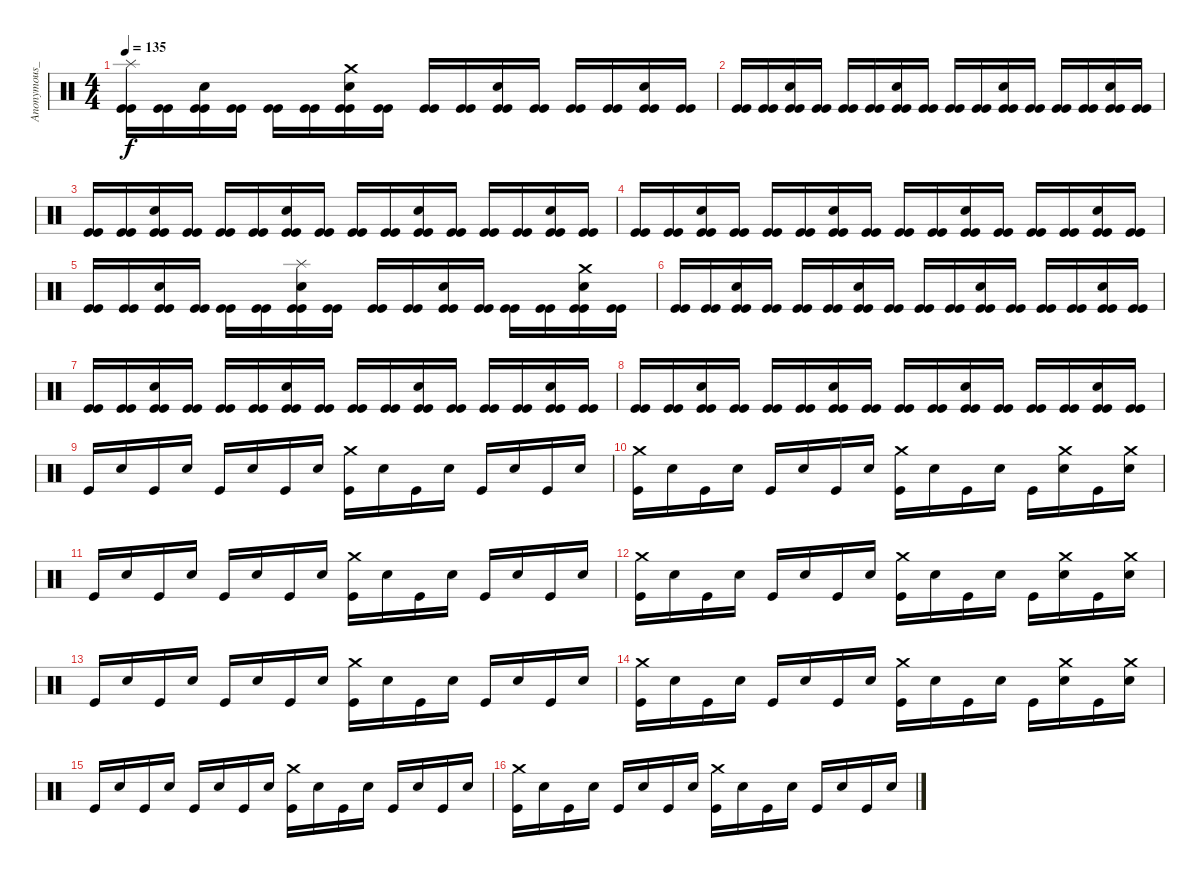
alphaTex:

\track ("Anonymous_Drums" "Anonymous_") {instrument percussion}
\staff {score}
\articulation defaults
\ts (4 4)
\tempo 135
\clef neutral
\ks c
("Splash (hit)" "Kick (hit)" "Kick (hit)").16{dy f} ("Kick (hit)" "Kick (hit)").16 ("Snare (hit) 2" "Kick (hit)" "Kick (hit)").16 ("Kick (hit)" "Kick (hit)").16 ("Kick (hit)" "Kick (hit)").16 ("Kick (hit)" "Kick (hit)").16 ("Crash medium (hit)" "Snare (hit) 2" "Kick (hit)" "Kick (hit)").16 ("Kick (hit)" "Kick (hit)").16 ("Kick (hit)" "Kick (hit)").16 ("Kick (hit)" "Kick (hit)").16 ("Snare (hit) 2" "Kick (hit)" "Kick (hit)").16 ("Kick (hit)" "Kick (hit)").16 ("Kick (hit)" "Kick (hit)").16 ("Kick (hit)" "Kick (hit)").16 ("Snare (hit) 2" "Kick (hit)" "Kick (hit)").16 ("Kick (hit)" "Kick (hit)").16 |
("Kick (hit)" "Kick (hit)").16 ("Kick (hit)" "Kick (hit)").16 ("Snare (hit) 2" "Kick (hit)" "Kick (hit)").16 ("Kick (hit)" "Kick (hit)").16 ("Kick (hit)" "Kick (hit)").16 ("Kick (hit)" "Kick (hit)").16 ("Snare (hit) 2" "Kick (hit)" "Kick (hit)").16 ("Kick (hit)" "Kick (hit)").16 ("Kick (hit)" "Kick (hit)").16 ("Kick (hit)" "Kick (hit)").16 ("Snare (hit) 2" "Kick (hit)" "Kick (hit)").16 ("Kick (hit)" "Kick (hit)").16 ("Kick (hit)" "Kick (hit)").16 ("Kick (hit)" "Kick (hit)").16 ("Snare (hit) 2" "Kick (hit)" "Kick (hit)").16 ("Kick (hit)" "Kick (hit)").16 |
("Kick (hit)" "Kick (hit)").16 ("Kick (hit)" "Kick (hit)").16 ("Snare (hit) 2" "Kick (hit)" "Kick (hit)").16 ("Kick (hit)" "Kick (hit)").16 ("Kick (hit)" "Kick (hit)").16 ("Kick (hit)" "Kick (hit)").16 ("Snare (hit) 2" "Kick (hit)" "Kick (hit)").16 ("Kick (hit)" "Kick (hit)").16 ("Kick (hit)" "Kick (hit)").16 ("Kick (hit)" "Kick (hit)").16 ("Snare (hit) 2" "Kick (hit)" "Kick (hit)").16 ("Kick (hit)" "Kick (hit)").16 ("Kick (hit)" "Kick (hit)").16 ("Kick (hit)" "Kick (hit)").16 ("Snare (hit) 2" "Kick (hit)" "Kick (hit)").16 ("Kick (hit)" "Kick (hit)").16 |
("Kick (hit)" "Kick (hit)").16 ("Kick (hit)" "Kick (hit)").16 ("Snare (hit) 2" "Kick (hit)" "Kick (hit)").16 ("Kick (hit)" "Kick (hit)").16 ("Kick (hit)" "Kick (hit)").16 ("Kick (hit)" "Kick (hit)").16 ("Snare (hit) 2" "Kick (hit)" "Kick (hit)").16 ("Kick (hit)" "Kick (hit)").16 ("Kick (hit)" "Kick (hit)").16 ("Kick (hit)" "Kick (hit)").16 ("Snare (hit) 2" "Kick (hit)" "Kick (hit)").16 ("Kick (hit)" "Kick (hit)").16 ("Kick (hit)" "Kick (hit)").16 ("Kick (hit)" "Kick (hit)").16 ("Snare (hit) 2" "Kick (hit)" "Kick (hit)").16 ("Kick (hit)" "Kick (hit)").16 |
("Kick (hit)" "Kick (hit)").16 ("Kick (hit)" "Kick (hit)").16 ("Snare (hit) 2" "Kick (hit)" "Kick (hit)").16 ("Kick (hit)" "Kick (hit)").16 ("Kick (hit)" "Kick (hit)").16 ("Kick (hit)" "Kick (hit)").16 ("Splash (hit)" "Snare (hit) 2" "Kick (hit)" "Kick (hit)").16 ("Kick (hit)" "Kick (hit)").16 ("Kick (hit)" "Kick (hit)").16 ("Kick (hit)" "Kick (hit)").16 ("Snare (hit) 2" "Kick (hit)" "Kick (hit)").16 ("Kick (hit)" "Kick (hit)").16 ("Kick (hit)" "Kick (hit)").16 ("Kick (hit)" "Kick (hit)").16 ("Crash medium (hit)" "Snare (hit) 2" "Kick (hit)" "Kick (hit)").16 ("Kick (hit)" "Kick (hit)").16 |
("Kick (hit)" "Kick (hit)").16 ("Kick (hit)" "Kick (hit)").16 ("Snare (hit) 2" "Kick (hit)" "Kick (hit)").16 ("Kick (hit)" "Kick (hit)").16 ("Kick (hit)" "Kick (hit)").16 ("Kick (hit)" "Kick (hit)").16 ("Snare (hit) 2" "Kick (hit)" "Kick (hit)").16 ("Kick (hit)" "Kick (hit)").16 ("Kick (hit)" "Kick (hit)").16 ("Kick (hit)" "Kick (hit)").16 ("Snare (hit) 2" "Kick (hit)" "Kick (hit)").16 ("Kick (hit)" "Kick (hit)").16 ("Kick (hit)" "Kick (hit)").16 ("Kick (hit)" "Kick (hit)").16 ("Snare (hit) 2" "Kick (hit)" "Kick (hit)").16 ("Kick (hit)" "Kick (hit)").16 |
("Kick (hit)" "Kick (hit)").16 ("Kick (hit)" "Kick (hit)").16 ("Snare (hit) 2" "Kick (hit)" "Kick (hit)").16 ("Kick (hit)" "Kick (hit)").16 ("Kick (hit)" "Kick (hit)").16 ("Kick (hit)" "Kick (hit)").16 ("Snare (hit) 2" "Kick (hit)" "Kick (hit)").16 ("Kick (hit)" "Kick (hit)").16 ("Kick (hit)" "Kick (hit)").16 ("Kick (hit)" "Kick (hit)").16 ("Snare (hit) 2" "Kick (hit)" "Kick (hit)").16 ("Kick (hit)" "Kick (hit)").16 ("Kick (hit)" "Kick (hit)").16 ("Kick (hit)" "Kick (hit)").16 ("Snare (hit) 2" "Kick (hit)" "Kick (hit)").16 ("Kick (hit)" "Kick (hit)").16 |
("Kick (hit)" "Kick (hit)").16 ("Kick (hit)" "Kick (hit)").16 ("Snare (hit) 2" "Kick (hit)" "Kick (hit)").16 ("Kick (hit)" "Kick (hit)").16 ("Kick (hit)" "Kick (hit)").16 ("Kick (hit)" "Kick (hit)").16 ("Snare (hit) 2" "Kick (hit)" "Kick (hit)").16 ("Kick (hit)" "Kick (hit)").16 ("Kick (hit)" "Kick (hit)").16 ("Kick (hit)" "Kick (hit)").16 ("Snare (hit) 2" "Kick (hit)" "Kick (hit)").16 ("Kick (hit)" "Kick (hit)").16 ("Kick (hit)" "Kick (hit)").16 ("Kick (hit)" "Kick (hit)").16 ("Snare (hit) 2" "Kick (hit)" "Kick (hit)").16 ("Kick (hit)" "Kick (hit)").16 |
"Kick (hit)".16 "Snare (hit) 2".16 "Kick (hit)".16 "Snare (hit) 2".16 "Kick (hit)".16 "Snare (hit) 2".16 "Kick (hit)".16 "Snare (hit) 2".16 ("Crash medium (hit)" "Kick (hit)").16 "Snare (hit) 2".16 "Kick (hit)".16 "Snare (hit) 2".16 "Kick (hit)".16 "Snare (hit) 2".16 "Kick (hit)".16 "Snare (hit) 2".16 |
("Crash medium (hit)" "Kick (hit)").16 "Snare (hit) 2".16 "Kick (hit)".16 "Snare (hit) 2".16 "Kick (hit)".16 "Snare (hit) 2".16 "Kick (hit)".16 "Snare (hit) 2".16 ("Crash medium (hit)" "Kick (hit)").16 "Snare (hit) 2".16 "Kick (hit)".16 "Snare (hit) 2".16 "Kick (hit)".16 ("Crash medium (hit)" "Snare (hit) 2").16 "Kick (hit)".16 ("Crash medium (hit)" "Snare (hit) 2").16 |
"Kick (hit)".16 "Snare (hit) 2".16 "Kick (hit)".16 "Snare (hit) 2".16 "Kick (hit)".16 "Snare (hit) 2".16 "Kick (hit)".16 "Snare (hit) 2".16 ("Crash medium (hit)" "Kick (hit)").16 "Snare (hit) 2".16 "Kick (hit)".16 "Snare (hit) 2".16 "Kick (hit)".16 "Snare (hit) 2".16 "Kick (hit)".16 "Snare (hit) 2".16 |
("Crash medium (hit)" "Kick (hit)").16 "Snare (hit) 2".16 "Kick (hit)".16 "Snare (hit) 2".16 "Kick (hit)".16 "Snare (hit) 2".16 "Kick (hit)".16 "Snare (hit) 2".16 ("Crash medium (hit)" "Kick (hit)").16 "Snare (hit) 2".16 "Kick (hit)".16 "Snare (hit) 2".16 "Kick (hit)".16 ("Crash medium (hit)" "Snare (hit) 2").16 "Kick (hit)".16 ("Crash medium (hit)" "Snare (hit) 2").16 |
"Kick (hit)".16 "Snare (hit) 2".16 "Kick (hit)".16 "Snare (hit) 2".16 "Kick (hit)".16 "Snare (hit) 2".16 "Kick (hit)".16 "Snare (hit) 2".16 ("Crash medium (hit)" "Kick (hit)").16 "Snare (hit) 2".16 "Kick (hit)".16 "Snare (hit) 2".16 "Kick (hit)".16 "Snare (hit) 2".16 "Kick (hit)".16 "Snare (hit) 2".16 |
("Crash medium (hit)" "Kick (hit)").16 "Snare (hit) 2".16 "Kick (hit)".16 "Snare (hit) 2".16 "Kick (hit)".16 "Snare (hit) 2".16 "Kick (hit)".16 "Snare (hit) 2".16 ("Crash medium (hit)" "Kick (hit)").16 "Snare (hit) 2".16 "Kick (hit)".16 "Snare (hit) 2".16 "Kick (hit)".16 ("Crash medium (hit)" "Snare (hit) 2").16 "Kick (hit)".16 ("Crash medium (hit)" "Snare (hit) 2").16 |
"Kick (hit)".16 "Snare (hit) 2".16 "Kick (hit)".16 "Snare (hit) 2".16 "Kick (hit)".16 "Snare (hit) 2".16 "Kick (hit)".16 "Snare (hit) 2".16 ("Crash medium (hit)" "Kick (hit)").16 "Snare (hit) 2".16 "Kick (hit)".16 "Snare (hit) 2".16 "Kick (hit)".16 "Snare (hit) 2".16 "Kick (hit)".16 "Snare (hit) 2".16 |
("Crash medium (hit)" "Kick (hit)").16 "Snare (hit) 2".16 "Kick (hit)".16 "Snare (hit) 2".16 "Kick (hit)".16 "Snare (hit) 2".16 "Kick (hit)".16 "Snare (hit) 2".16 ("Crash medium (hit)" "Kick (hit)").16 "Snare (hit) 2".16 "Kick (hit)".16 "Snare (hit) 2".16 "Kick (hit)".16 "Snare (hit) 2".16 "Kick (hit)".16 "Snare (hit) 2".16
